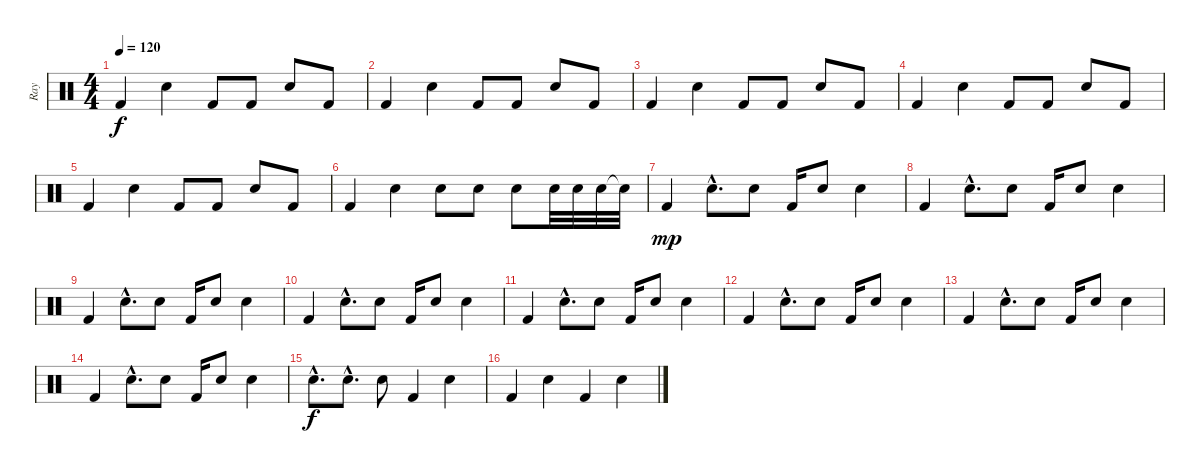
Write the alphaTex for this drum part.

\track ("Ray" "Ray") {instrument percussion}
\staff {score}
\articulation defaults
\ts (4 4)
\tempo 120
\clef neutral
\ks c "Kick (hit) 2".4{dy f} "Snare (hit) 2".4 "Kick (hit) 2".8 "Kick (hit) 2".8 "Snare (hit) 2".8 "Kick (hit) 2".8
|
"Kick (hit) 2".4 "Snare (hit) 2".4 "Kick (hit) 2".8 "Kick (hit) 2".8 "Snare (hit) 2".8 "Kick (hit) 2".8 |
"Kick (hit) 2".4 "Snare (hit) 2".4 "Kick (hit) 2".8 "Kick (hit) 2".8 "Snare (hit) 2".8 "Kick (hit) 2".8 |
"Kick (hit) 2".4 "Snare (hit) 2".4 "Kick (hit) 2".8 "Kick (hit) 2".8 "Snare (hit) 2".8 "Kick (hit) 2".8 |
"Kick (hit) 2".4 "Snare (hit) 2".4 "Kick (hit) 2".8 "Kick (hit) 2".8 "Snare (hit) 2".8 "Kick (hit) 2".8 |
"Kick (hit) 2".4 "Snare (hit) 2".4 "Snare (hit) 2".8 "Snare (hit) 2".8 "Snare (hit) 2".8 "Snare (hit) 2".32 "Snare (hit) 2".32 "Snare (hit) 2".32 "Snare (hit) 2"{t}.32 |
"Kick (hit) 2".4{dy mp} "Snare (hit) 2"{hac}.8{d} "Snare (hit) 2".8 "Kick (hit) 2".16 "Snare (hit) 2".8 "Snare (hit) 2".4 |
"Kick (hit) 2".4 "Snare (hit) 2"{hac}.8{d} "Snare (hit) 2".8 "Kick (hit) 2".16 "Snare (hit) 2".8 "Snare (hit) 2".4 |
"Kick (hit) 2".4 "Snare (hit) 2"{hac}.8{d} "Snare (hit) 2".8 "Kick (hit) 2".16 "Snare (hit) 2".8 "Snare (hit) 2".4 |
"Kick (hit) 2".4 "Snare (hit) 2"{hac}.8{d} "Snare (hit) 2".8 "Kick (hit) 2".16 "Snare (hit) 2".8 "Snare (hit) 2".4 |
"Kick (hit) 2".4 "Snare (hit) 2"{hac}.8{d} "Snare (hit) 2".8 "Kick (hit) 2".16 "Snare (hit) 2".8 "Snare (hit) 2".4 |
"Kick (hit) 2".4 "Snare (hit) 2"{hac}.8{d} "Snare (hit) 2".8 "Kick (hit) 2".16 "Snare (hit) 2".8 "Snare (hit) 2".4 |
"Kick (hit) 2".4 "Snare (hit) 2"{hac}.8{d} "Snare (hit) 2".8 "Kick (hit) 2".16 "Snare (hit) 2".8 "Snare (hit) 2".4 |
"Kick (hit) 2".4 "Snare (hit) 2"{hac}.8{d} "Snare (hit) 2".8 "Kick (hit) 2".16 "Snare (hit) 2".8 "Snare (hit) 2".4 |
"Snare (hit) 2"{hac}.8{d dy f} "Snare (hit) 2"{hac}.8{d} "Snare (hit) 2".8 "Kick (hit) 2".4 "Snare (hit) 2".4 |
"Kick (hit) 2".4 "Snare (hit) 2".4 "Kick (hit) 2".4 "Snare (hit) 2".4
